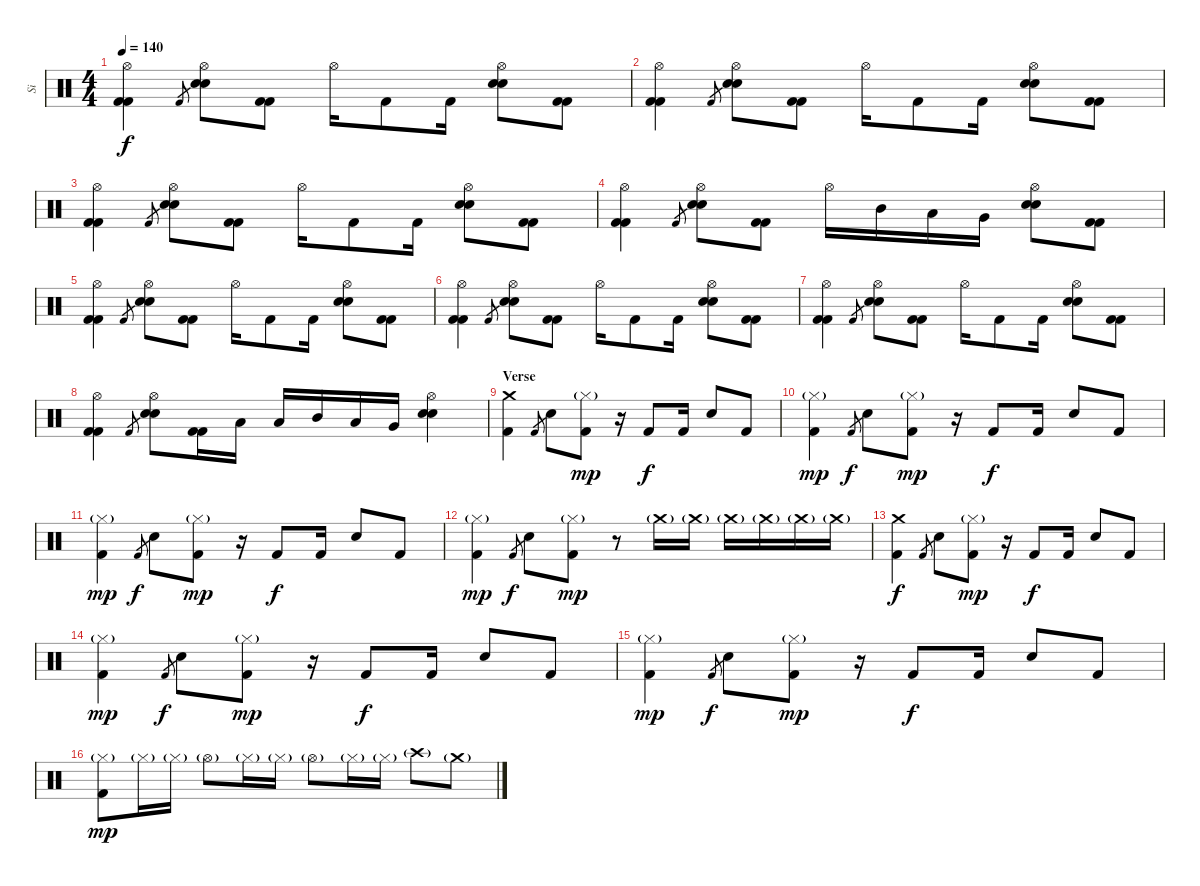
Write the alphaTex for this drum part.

\track ("Si" "Si") {instrument percussion}
\staff {score}
\articulation defaults
\ts (4 4)
\tempo 140
\clef neutral
\ks c
("Hi-Hat (open)" "Kick (hit) 2" "Kick (hit) 2").4{dy f} "Kick (hit) 2".8{gr} ("Hi-Hat (open)" "Electric Snare (hit)" "Electric Snare (hit)").8 ("Kick (hit) 2" "Kick (hit) 2").8 "Hi-Hat (open)".16 "Kick (hit) 2".8 "Kick (hit) 2".16 ("Hi-Hat (open)" "Electric Snare (hit)" "Electric Snare (hit)").8 ("Kick (hit) 2" "Kick (hit) 2").8 |
("Hi-Hat (open)" "Kick (hit) 2" "Kick (hit) 2").4 "Kick (hit) 2".8{gr} ("Hi-Hat (open)" "Electric Snare (hit)" "Electric Snare (hit)").8 ("Kick (hit) 2" "Kick (hit) 2").8 "Hi-Hat (open)".16 "Kick (hit) 2".8 "Kick (hit) 2".16 ("Hi-Hat (open)" "Electric Snare (hit)" "Electric Snare (hit)").8 ("Kick (hit) 2" "Kick (hit) 2").8 |
("Hi-Hat (open)" "Kick (hit) 2" "Kick (hit) 2").4 "Kick (hit) 2".8{gr} ("Hi-Hat (open)" "Electric Snare (hit)" "Electric Snare (hit)").8 ("Kick (hit) 2" "Kick (hit) 2").8 "Hi-Hat (open)".16 "Kick (hit) 2".8 "Kick (hit) 2".16 ("Hi-Hat (open)" "Electric Snare (hit)" "Electric Snare (hit)").8 ("Kick (hit) 2" "Kick (hit) 2").8 |
("Hi-Hat (open)" "Kick (hit) 2" "Kick (hit) 2").4 "Kick (hit) 2".8{gr} ("Hi-Hat (open)" "Electric Snare (hit)" "Electric Snare (hit)").8 ("Kick (hit) 2" "Kick (hit) 2").8 "Hi-Hat (open)".16 "Mid Tom (hit)".16 "Low Tom (hit)".16 "Very Low Tom (hit)".16 ("Hi-Hat (open)" "Electric Snare (hit)" "Electric Snare (hit)").8 ("Kick (hit) 2" "Kick (hit) 2").8 |
("Hi-Hat (open)" "Kick (hit) 2" "Kick (hit) 2").4 "Kick (hit) 2".8{gr} ("Hi-Hat (open)" "Electric Snare (hit)" "Electric Snare (hit)").8 ("Kick (hit) 2" "Kick (hit) 2").8 "Hi-Hat (open)".16 "Kick (hit) 2".8 "Kick (hit) 2".16 ("Hi-Hat (open)" "Electric Snare (hit)" "Electric Snare (hit)").8 ("Kick (hit) 2" "Kick (hit) 2").8 |
("Hi-Hat (open)" "Kick (hit) 2" "Kick (hit) 2").4 "Kick (hit) 2".8{gr} ("Hi-Hat (open)" "Electric Snare (hit)" "Electric Snare (hit)").8 ("Kick (hit) 2" "Kick (hit) 2").8 "Hi-Hat (open)".16 "Kick (hit) 2".8 "Kick (hit) 2".16 ("Hi-Hat (open)" "Electric Snare (hit)" "Electric Snare (hit)").8 ("Kick (hit) 2" "Kick (hit) 2").8 |
("Hi-Hat (open)" "Kick (hit) 2" "Kick (hit) 2").4 "Kick (hit) 2".8{gr} ("Hi-Hat (open)" "Electric Snare (hit)" "Electric Snare (hit)").8 ("Kick (hit) 2" "Kick (hit) 2").8 "Hi-Hat (open)".16 "Kick (hit) 2".8 "Kick (hit) 2".16 ("Hi-Hat (open)" "Electric Snare (hit)" "Electric Snare (hit)").8 ("Kick (hit) 2" "Kick (hit) 2").8 |
("Hi-Hat (open)" "Kick (hit) 2" "Kick (hit) 2").4 "Kick (hit) 2".8{gr} ("Hi-Hat (open)" "Electric Snare (hit)" "Electric Snare (hit)").8 ("Kick (hit) 2" "Kick (hit) 2").16 "Low Tom (hit)".16 "Low Tom (hit)".16 "Mid Tom (hit)".16 "Low Tom (hit)".16 "Very Low Tom (hit)".16 ("Hi-Hat (open)" "Electric Snare (hit)" "Electric Snare (hit)").4 |
\section ("" "Verse")
("Crash medium (hit)" "Kick (hit) 2").4 "Kick (hit) 2".8{gr} "Electric Snare (hit)".8 ("Hi-Hat (closed)"{g} "Kick (hit) 2").8{dy mp} r.16 "Kick (hit) 2".8{dy f} "Kick (hit) 2".16 "Electric Snare (hit)".8 "Kick (hit) 2".8 |
("Hi-Hat (closed)"{g} "Kick (hit) 2").4{dy mp} "Kick (hit) 2".8{gr dy f} "Electric Snare (hit)".8 ("Hi-Hat (closed)"{g} "Kick (hit) 2").8{dy mp} r.16 "Kick (hit) 2".8{dy f} "Kick (hit) 2".16 "Electric Snare (hit)".8 "Kick (hit) 2".8 |
("Hi-Hat (closed)"{g} "Kick (hit) 2").4{dy mp} "Kick (hit) 2".8{gr dy f} "Electric Snare (hit)".8 ("Hi-Hat (closed)"{g} "Kick (hit) 2").8{dy mp} r.16 "Kick (hit) 2".8{dy f} "Kick (hit) 2".16 "Electric Snare (hit)".8 "Kick (hit) 2".8 |
("Hi-Hat (closed)"{g} "Kick (hit) 2").4{dy mp} "Kick (hit) 2".8{gr dy f} "Electric Snare (hit)".8 ("Hi-Hat (closed)"{g} "Kick (hit) 2").8{dy mp} r.8 "Crash medium (hit)"{g}.16 "Crash medium (hit)"{g}.16 "Crash medium (hit)"{g}.16 "Crash medium (hit)"{g}.16 "Crash medium (hit)"{g}.16 "Crash medium (hit)"{g}.16 |
("Crash medium (hit)" "Kick (hit) 2").4{dy f} "Kick (hit) 2".8{gr} "Electric Snare (hit)".8 ("Hi-Hat (closed)"{g} "Kick (hit) 2").8{dy mp} r.16 "Kick (hit) 2".8{dy f} "Kick (hit) 2".16 "Electric Snare (hit)".8 "Kick (hit) 2".8 |
("Hi-Hat (closed)"{g} "Kick (hit) 2").4{dy mp} "Kick (hit) 2".8{gr dy f} "Electric Snare (hit)".8 ("Hi-Hat (closed)"{g} "Kick (hit) 2").8{dy mp} r.16 "Kick (hit) 2".8{dy f} "Kick (hit) 2".16 "Electric Snare (hit)".8 "Kick (hit) 2".8 |
("Hi-Hat (closed)"{g} "Kick (hit) 2").4{dy mp} "Kick (hit) 2".8{gr dy f} "Electric Snare (hit)".8 ("Hi-Hat (closed)"{g} "Kick (hit) 2").8{dy mp} r.16 "Kick (hit) 2".8{dy f} "Kick (hit) 2".16 "Electric Snare (hit)".8 "Kick (hit) 2".8 |
("Hi-Hat (closed)"{g} "Kick (hit) 2").8{dy mp} "Hi-Hat (closed)"{g}.16 "Hi-Hat (closed)"{g}.16 "Hi-Hat (open)"{g}.8 "Hi-Hat (closed)"{g}.16 "Hi-Hat (closed)"{g}.16 "Hi-Hat (open)"{g}.8 "Hi-Hat (closed)"{g}.16 "Hi-Hat (closed)"{g}.16 "Crash high (hit)"{g}.8 "Crash medium (hit)"{g}.8
